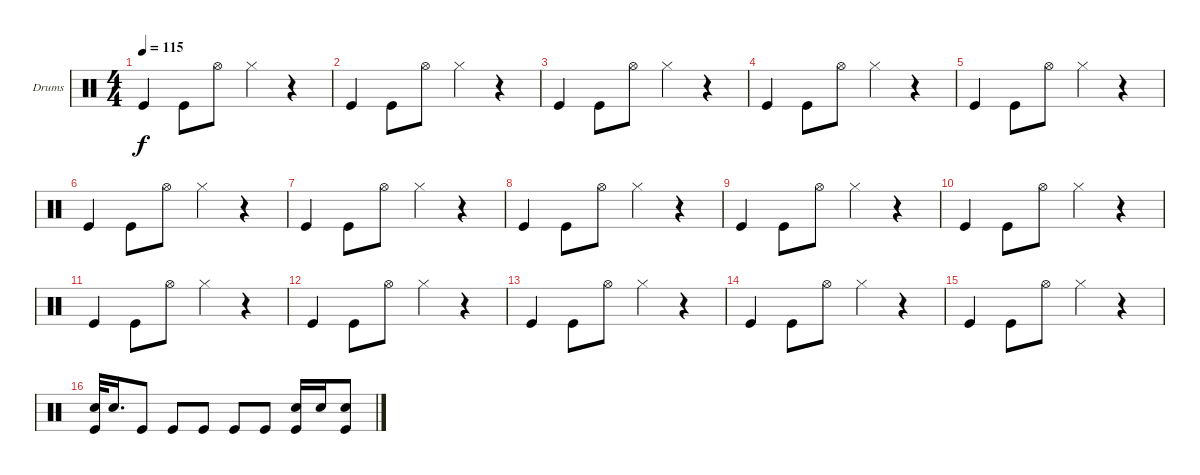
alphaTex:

\bracketExtendMode groupsimilarinstruments
\firstSystemTrackNameOrientation horizontal
\otherSystemsTrackNameOrientation horizontal
\track ("Drumkit" "Drums") {instrument percussion}
\staff {score}
\articulation defaults
\ts (4 4)
\tempo 115
\clef neutral
\ks c "Kick (hit)".4{dy f} "Kick (hit)".8 "Hi-Hat (open)".8 "Hi-Hat (closed)".4
r.4 |
"Kick (hit)".4 "Kick (hit)".8 "Hi-Hat (open)".8 "Hi-Hat (closed)".4 r.4 |
"Kick (hit)".4 "Kick (hit)".8 "Hi-Hat (open)".8 "Hi-Hat (closed)".4 r.4 |
"Kick (hit)".4 "Kick (hit)".8 "Hi-Hat (open)".8 "Hi-Hat (closed)".4 r.4 |
"Kick (hit)".4 "Kick (hit)".8 "Hi-Hat (open)".8 "Hi-Hat (closed)".4 r.4 |
"Kick (hit)".4 "Kick (hit)".8 "Hi-Hat (open)".8 "Hi-Hat (closed)".4 r.4 |
"Kick (hit)".4 "Kick (hit)".8 "Hi-Hat (open)".8 "Hi-Hat (closed)".4 r.4 |
"Kick (hit)".4 "Kick (hit)".8 "Hi-Hat (open)".8 "Hi-Hat (closed)".4 r.4 |
"Kick (hit)".4 "Kick (hit)".8 "Hi-Hat (open)".8 "Hi-Hat (closed)".4 r.4 |
"Kick (hit)".4 "Kick (hit)".8 "Hi-Hat (open)".8 "Hi-Hat (closed)".4 r.4 |
"Kick (hit)".4 "Kick (hit)".8 "Hi-Hat (open)".8 "Hi-Hat (closed)".4 r.4 |
"Kick (hit)".4 "Kick (hit)".8 "Hi-Hat (open)".8 "Hi-Hat (closed)".4 r.4 |
"Kick (hit)".4 "Kick (hit)".8 "Hi-Hat (open)".8 "Hi-Hat (closed)".4 r.4 |
"Kick (hit)".4 "Kick (hit)".8 "Hi-Hat (open)".8 "Hi-Hat (closed)".4 r.4 |
"Kick (hit)".4 "Kick (hit)".8 "Hi-Hat (open)".8 "Hi-Hat (closed)".4 r.4 |
("Snare (hit) 2" "Kick (hit)").32 "Snare (hit) 2".16{d} "Kick (hit)".8 "Kick (hit)".8 "Kick (hit)".8 "Kick (hit)".8 "Kick (hit)".8 ("Snare (hit) 2" "Kick (hit)").16 "Snare (hit) 2".16 ("Snare (hit) 2" "Kick (hit)").8
